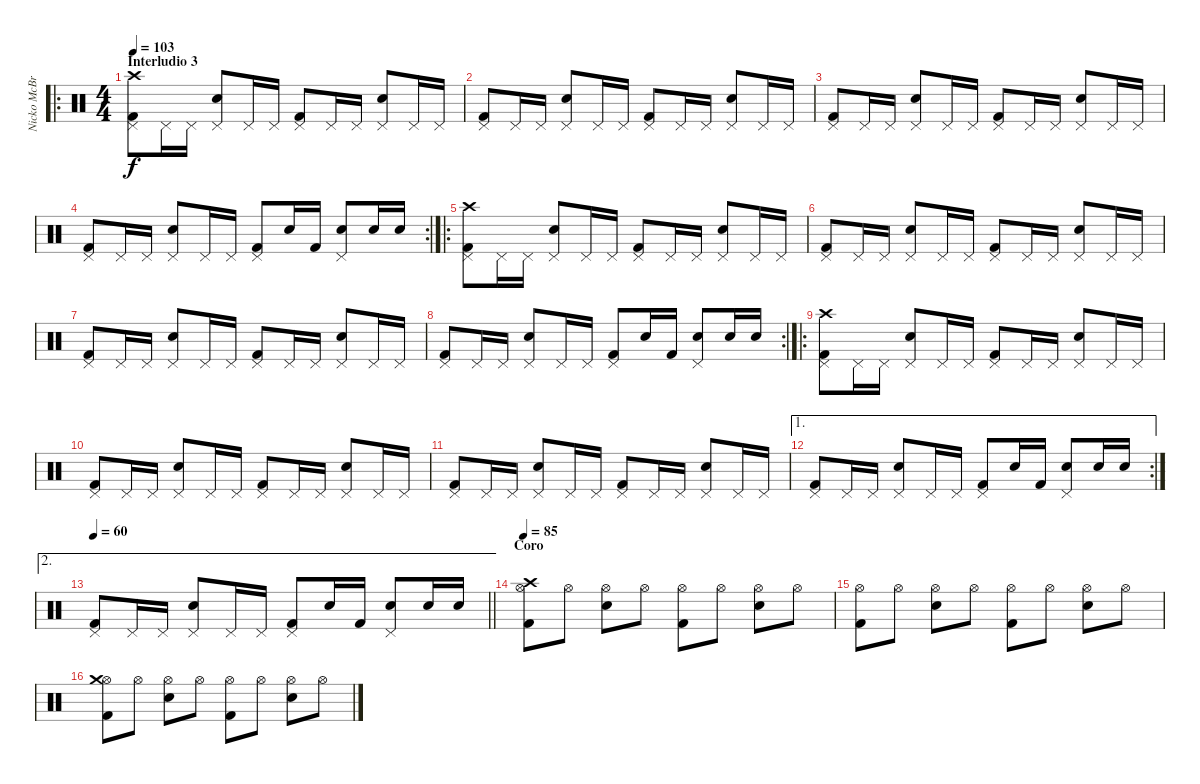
\track ("Nicko McBrain" "Nicko McBr") {instrument percussion}
\staff {score}
\articulation defaults
\ro
\ts (4 4)
\section ("" "Interludio 3")
\tempo 103
\clef neutral
\ks c
("Kick (hit) 2" "Pedal Hi-Hat (hit)" "Crash high (hit)").8{dy f} "Pedal Hi-Hat (hit)".16 "Pedal Hi-Hat (hit)".16 ("Snare (hit) 2" "Pedal Hi-Hat (hit)").8 "Pedal Hi-Hat (hit)".16 "Pedal Hi-Hat (hit)".16 ("Kick (hit) 2" "Pedal Hi-Hat (hit)").8 "Pedal Hi-Hat (hit)".16 "Pedal Hi-Hat (hit)".16 ("Snare (hit) 2" "Pedal Hi-Hat (hit)").8 "Pedal Hi-Hat (hit)".16 "Pedal Hi-Hat (hit)".16 |
("Kick (hit) 2" "Pedal Hi-Hat (hit)").8 "Pedal Hi-Hat (hit)".16 "Pedal Hi-Hat (hit)".16 ("Snare (hit) 2" "Pedal Hi-Hat (hit)").8 "Pedal Hi-Hat (hit)".16 "Pedal Hi-Hat (hit)".16 ("Kick (hit) 2" "Pedal Hi-Hat (hit)").8 "Pedal Hi-Hat (hit)".16 "Pedal Hi-Hat (hit)".16 ("Snare (hit) 2" "Pedal Hi-Hat (hit)").8 "Pedal Hi-Hat (hit)".16 "Pedal Hi-Hat (hit)".16 |
("Kick (hit) 2" "Pedal Hi-Hat (hit)").8 "Pedal Hi-Hat (hit)".16 "Pedal Hi-Hat (hit)".16 ("Snare (hit) 2" "Pedal Hi-Hat (hit)").8 "Pedal Hi-Hat (hit)".16 "Pedal Hi-Hat (hit)".16 ("Kick (hit) 2" "Pedal Hi-Hat (hit)").8 "Pedal Hi-Hat (hit)".16 "Pedal Hi-Hat (hit)".16 ("Snare (hit) 2" "Pedal Hi-Hat (hit)").8 "Pedal Hi-Hat (hit)".16 "Pedal Hi-Hat (hit)".16 |
\rc 2
("Kick (hit) 2" "Pedal Hi-Hat (hit)").8 "Pedal Hi-Hat (hit)".16 "Pedal Hi-Hat (hit)".16 ("Snare (hit) 2" "Pedal Hi-Hat (hit)").8 "Pedal Hi-Hat (hit)".16 "Pedal Hi-Hat (hit)".16 ("Kick (hit) 2" "Pedal Hi-Hat (hit)").8 "Snare (hit) 2".16 "Kick (hit) 2".16 ("Snare (hit) 2" "Pedal Hi-Hat (hit)").8 "Snare (hit) 2".16 "Snare (hit) 2".16 |
\ro
("Kick (hit) 2" "Pedal Hi-Hat (hit)" "Crash high (hit)").8 "Pedal Hi-Hat (hit)".16 "Pedal Hi-Hat (hit)".16 ("Snare (hit) 2" "Pedal Hi-Hat (hit)").8 "Pedal Hi-Hat (hit)".16 "Pedal Hi-Hat (hit)".16 ("Kick (hit) 2" "Pedal Hi-Hat (hit)").8 "Pedal Hi-Hat (hit)".16 "Pedal Hi-Hat (hit)".16 ("Snare (hit) 2" "Pedal Hi-Hat (hit)").8 "Pedal Hi-Hat (hit)".16 "Pedal Hi-Hat (hit)".16 |
("Kick (hit) 2" "Pedal Hi-Hat (hit)").8 "Pedal Hi-Hat (hit)".16 "Pedal Hi-Hat (hit)".16 ("Snare (hit) 2" "Pedal Hi-Hat (hit)").8 "Pedal Hi-Hat (hit)".16 "Pedal Hi-Hat (hit)".16 ("Kick (hit) 2" "Pedal Hi-Hat (hit)").8 "Pedal Hi-Hat (hit)".16 "Pedal Hi-Hat (hit)".16 ("Snare (hit) 2" "Pedal Hi-Hat (hit)").8 "Pedal Hi-Hat (hit)".16 "Pedal Hi-Hat (hit)".16 |
("Kick (hit) 2" "Pedal Hi-Hat (hit)").8 "Pedal Hi-Hat (hit)".16 "Pedal Hi-Hat (hit)".16 ("Snare (hit) 2" "Pedal Hi-Hat (hit)").8 "Pedal Hi-Hat (hit)".16 "Pedal Hi-Hat (hit)".16 ("Kick (hit) 2" "Pedal Hi-Hat (hit)").8 "Pedal Hi-Hat (hit)".16 "Pedal Hi-Hat (hit)".16 ("Snare (hit) 2" "Pedal Hi-Hat (hit)").8 "Pedal Hi-Hat (hit)".16 "Pedal Hi-Hat (hit)".16 |
\rc 2
("Kick (hit) 2" "Pedal Hi-Hat (hit)").8 "Pedal Hi-Hat (hit)".16 "Pedal Hi-Hat (hit)".16 ("Snare (hit) 2" "Pedal Hi-Hat (hit)").8 "Pedal Hi-Hat (hit)".16 "Pedal Hi-Hat (hit)".16 ("Kick (hit) 2" "Pedal Hi-Hat (hit)").8 "Snare (hit) 2".16 "Kick (hit) 2".16 ("Snare (hit) 2" "Pedal Hi-Hat (hit)").8 "Snare (hit) 2".16 "Snare (hit) 2".16 |
\ro
("Kick (hit) 2" "Pedal Hi-Hat (hit)" "Crash high (hit)").8 "Pedal Hi-Hat (hit)".16 "Pedal Hi-Hat (hit)".16 ("Snare (hit) 2" "Pedal Hi-Hat (hit)").8 "Pedal Hi-Hat (hit)".16 "Pedal Hi-Hat (hit)".16 ("Kick (hit) 2" "Pedal Hi-Hat (hit)").8 "Pedal Hi-Hat (hit)".16 "Pedal Hi-Hat (hit)".16 ("Snare (hit) 2" "Pedal Hi-Hat (hit)").8 "Pedal Hi-Hat (hit)".16 "Pedal Hi-Hat (hit)".16 |
("Kick (hit) 2" "Pedal Hi-Hat (hit)").8 "Pedal Hi-Hat (hit)".16 "Pedal Hi-Hat (hit)".16 ("Snare (hit) 2" "Pedal Hi-Hat (hit)").8 "Pedal Hi-Hat (hit)".16 "Pedal Hi-Hat (hit)".16 ("Kick (hit) 2" "Pedal Hi-Hat (hit)").8 "Pedal Hi-Hat (hit)".16 "Pedal Hi-Hat (hit)".16 ("Snare (hit) 2" "Pedal Hi-Hat (hit)").8 "Pedal Hi-Hat (hit)".16 "Pedal Hi-Hat (hit)".16 |
("Kick (hit) 2" "Pedal Hi-Hat (hit)").8 "Pedal Hi-Hat (hit)".16 "Pedal Hi-Hat (hit)".16 ("Snare (hit) 2" "Pedal Hi-Hat (hit)").8 "Pedal Hi-Hat (hit)".16 "Pedal Hi-Hat (hit)".16 ("Kick (hit) 2" "Pedal Hi-Hat (hit)").8 "Pedal Hi-Hat (hit)".16 "Pedal Hi-Hat (hit)".16 ("Snare (hit) 2" "Pedal Hi-Hat (hit)").8 "Pedal Hi-Hat (hit)".16 "Pedal Hi-Hat (hit)".16 |
\ae 1
\rc 2
("Kick (hit) 2" "Pedal Hi-Hat (hit)").8 "Pedal Hi-Hat (hit)".16 "Pedal Hi-Hat (hit)".16 ("Snare (hit) 2" "Pedal Hi-Hat (hit)").8 "Pedal Hi-Hat (hit)".16 "Pedal Hi-Hat (hit)".16 ("Kick (hit) 2" "Pedal Hi-Hat (hit)").8 "Snare (hit) 2".16 "Kick (hit) 2".16 ("Snare (hit) 2" "Pedal Hi-Hat (hit)").8 "Snare (hit) 2".16 "Snare (hit) 2".16 |
\ae 2
\tempo 60
\barLineRight lightlight
("Kick (hit) 2" "Pedal Hi-Hat (hit)").8 "Pedal Hi-Hat (hit)".16 "Pedal Hi-Hat (hit)".16 ("Snare (hit) 2" "Pedal Hi-Hat (hit)").8 "Pedal Hi-Hat (hit)".16 "Pedal Hi-Hat (hit)".16 ("Kick (hit) 2" "Pedal Hi-Hat (hit)").8 "Snare (hit) 2".16 "Kick (hit) 2".16 ("Snare (hit) 2" "Pedal Hi-Hat (hit)").8 "Snare (hit) 2".16 "Snare (hit) 2".16 |
\section ("" "Coro")
\tempo 85
("Kick (hit) 2" "Hi-Hat (open)" "Crash high (hit)").8 "Hi-Hat (open)".8 ("Snare (hit) 2" "Hi-Hat (open)").8 "Hi-Hat (open)".8 ("Kick (hit) 2" "Hi-Hat (open)").8 "Hi-Hat (open)".8 ("Snare (hit) 2" "Hi-Hat (open)").8 "Hi-Hat (open)".8 |
("Kick (hit) 2" "Hi-Hat (open)").8 "Hi-Hat (open)".8 ("Snare (hit) 2" "Hi-Hat (open)").8 "Hi-Hat (open)".8 ("Kick (hit) 2" "Hi-Hat (open)").8 "Hi-Hat (open)".8 ("Snare (hit) 2" "Hi-Hat (open)").8 "Hi-Hat (open)".8 |
("Kick (hit) 2" "Hi-Hat (open)" "Crash medium (hit)").8 "Hi-Hat (open)".8 ("Snare (hit) 2" "Hi-Hat (open)").8 "Hi-Hat (open)".8 ("Kick (hit) 2" "Hi-Hat (open)").8 "Hi-Hat (open)".8 ("Snare (hit) 2" "Hi-Hat (open)").8 "Hi-Hat (open)".8
